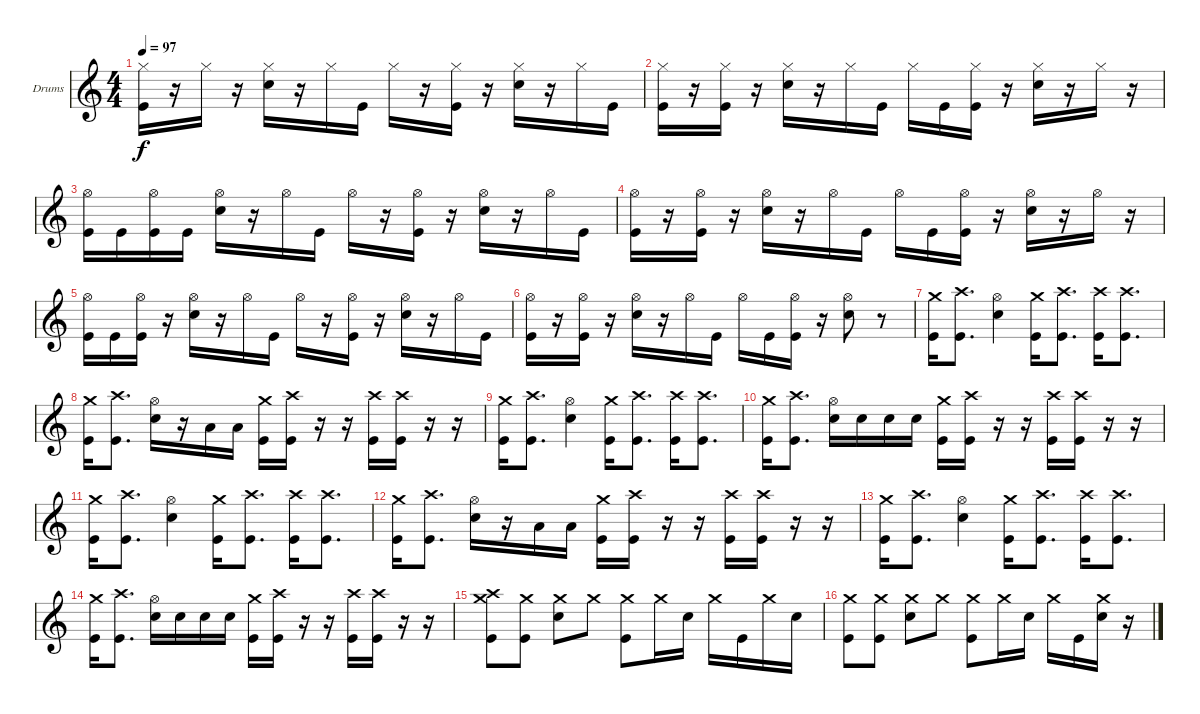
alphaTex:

\defaultSystemsLayout 4
\bracketExtendMode groupsimilarinstruments
\firstSystemTrackNameOrientation horizontal
\otherSystemsTrackNameOrientation horizontal
\track ("David Buckner" "Drums") {instrument percussion}
\staff {score}
\articulation defaults
\ts (4 4)
\tempo 97
\clef g2
\ks c
("Hi-Hat (closed)" "Kick (hit)").16{dy f} r.16 "Hi-Hat (closed)".16 r.16 ("Hi-Hat (closed)" "Snare (hit) 2").16 r.16 "Hi-Hat (closed)".16 "Kick (hit)".16 "Hi-Hat (closed)".16 r.16 ("Hi-Hat (closed)" "Kick (hit)").16 r.16 ("Hi-Hat (closed)" "Snare (hit) 2").16 r.16 "Hi-Hat (closed)".16 "Kick (hit)".16 |
("Hi-Hat (closed)" "Kick (hit)").16 r.16 ("Hi-Hat (closed)" "Kick (hit)").16 r.16 ("Hi-Hat (closed)" "Snare (hit) 2").16 r.16 "Hi-Hat (closed)".16 "Kick (hit)".16 "Hi-Hat (closed)".16 "Kick (hit)".16 ("Hi-Hat (closed)" "Kick (hit)").16 r.16 ("Hi-Hat (closed)" "Snare (hit) 2").16 r.16 "Hi-Hat (closed)".16 r.16 |
("Hi-Hat (open)" "Kick (hit)").16 "Kick (hit)".16 ("Hi-Hat (open)" "Kick (hit)").16 "Kick (hit)".16 ("Hi-Hat (open)" "Snare (hit) 2").16 r.16 "Hi-Hat (open)".16 "Kick (hit)".16 "Hi-Hat (open)".16 r.16 ("Hi-Hat (open)" "Kick (hit)").16 r.16 ("Hi-Hat (open)" "Snare (hit) 2").16 r.16 "Hi-Hat (open)".16 "Kick (hit)".16 |
("Hi-Hat (open)" "Kick (hit)").16 r.16 ("Hi-Hat (open)" "Kick (hit)").16 r.16 ("Hi-Hat (open)" "Snare (hit) 2").16 r.16 "Hi-Hat (open)".16 "Kick (hit)".16 "Hi-Hat (open)".16 "Kick (hit)".16 ("Hi-Hat (open)" "Kick (hit)").16 r.16 ("Hi-Hat (open)" "Snare (hit) 2").16 r.16 "Hi-Hat (open)".16 r.16 |
("Hi-Hat (open)" "Kick (hit)").16 "Kick (hit)".16 ("Hi-Hat (open)" "Kick (hit)").16 r.16 ("Hi-Hat (open)" "Snare (hit) 2").16 r.16 "Hi-Hat (open)".16 "Kick (hit)".16 "Hi-Hat (open)".16 r.16 ("Hi-Hat (open)" "Kick (hit)").16 r.16 ("Hi-Hat (open)" "Snare (hit) 2").16 r.16 "Hi-Hat (open)".16 "Kick (hit)".16 |
("Hi-Hat (open)" "Kick (hit)").16 r.16 ("Hi-Hat (open)" "Kick (hit)").16 r.16 ("Hi-Hat (open)" "Snare (hit) 2").16 r.16 "Hi-Hat (open)".16 "Kick (hit)".16 "Hi-Hat (open)".16 "Kick (hit)".16 ("Hi-Hat (open)" "Kick (hit)").16 r.16 ("Hi-Hat (open)" "Snare (hit) 2").8 r.8 |
("Kick (hit)" "Crash medium (hit)").16 ("Kick (hit)" "Crash high (hit)").8{d} ("Hi-Hat (open)" "Snare (hit) 2").4 ("Kick (hit)" "Crash medium (hit)").16 ("Kick (hit)" "Crash high (hit)").8{d} ("Kick (hit)" "Crash high (hit)").16 ("Kick (hit)" "Crash high (hit)").8{d} |
("Kick (hit)" "Crash medium (hit)").16 ("Kick (hit)" "Crash high (hit)").8{d} ("Snare (hit) 2" "Hi-Hat (open)").16 r.16 "Low Tom (hit)".16 "Low Tom (hit)".16 ("Kick (hit)" "Crash medium (hit)").16 ("Kick (hit)" "Crash high (hit)").16 r.16 r.16 ("Kick (hit)" "Crash high (hit)").16 ("Kick (hit)" "Crash high (hit)").16 r.16 r.16 |
("Kick (hit)" "Crash medium (hit)").16 ("Kick (hit)" "Crash high (hit)").8{d} ("Hi-Hat (open)" "Snare (hit) 2").4 ("Kick (hit)" "Crash medium (hit)").16 ("Kick (hit)" "Crash high (hit)").8{d} ("Kick (hit)" "Crash high (hit)").16 ("Kick (hit)" "Crash high (hit)").8{d} |
("Kick (hit)" "Crash medium (hit)").16 ("Kick (hit)" "Crash high (hit)").8{d} ("Snare (hit) 2" "Hi-Hat (open)").16 "Snare (hit) 2".16 "Snare (hit) 2".16 "Snare (hit) 2".16 ("Kick (hit)" "Crash medium (hit)").16 ("Kick (hit)" "Crash high (hit)").16 r.16 r.16 ("Kick (hit)" "Crash high (hit)").16 ("Kick (hit)" "Crash high (hit)").16 r.16 r.16 |
("Kick (hit)" "Crash medium (hit)").16 ("Kick (hit)" "Crash high (hit)").8{d} ("Hi-Hat (open)" "Snare (hit) 2").4 ("Kick (hit)" "Crash medium (hit)").16 ("Kick (hit)" "Crash high (hit)").8{d} ("Kick (hit)" "Crash high (hit)").16 ("Kick (hit)" "Crash high (hit)").8{d} |
("Kick (hit)" "Crash medium (hit)").16 ("Kick (hit)" "Crash high (hit)").8{d} ("Snare (hit) 2" "Hi-Hat (open)").16 r.16 "Low Tom (hit)".16 "Low Tom (hit)".16 ("Kick (hit)" "Crash medium (hit)").16 ("Kick (hit)" "Crash high (hit)").16 r.16 r.16 ("Kick (hit)" "Crash high (hit)").16 ("Kick (hit)" "Crash high (hit)").16 r.16 r.16 |
("Kick (hit)" "Crash medium (hit)").16 ("Kick (hit)" "Crash high (hit)").8{d} ("Hi-Hat (open)" "Snare (hit) 2").4 ("Kick (hit)" "Crash medium (hit)").16 ("Kick (hit)" "Crash high (hit)").8{d} ("Kick (hit)" "Crash high (hit)").16 ("Kick (hit)" "Crash high (hit)").8{d} |
("Kick (hit)" "Crash medium (hit)").16 ("Kick (hit)" "Crash high (hit)").8{d} ("Snare (hit) 2" "Hi-Hat (open)").16 "Snare (hit) 2".16 "Snare (hit) 2".16 "Snare (hit) 2".16 ("Kick (hit)" "Crash medium (hit)").16 ("Kick (hit)" "Crash high (hit)").16 r.16 r.16 ("Kick (hit)" "Crash high (hit)").16 ("Kick (hit)" "Crash high (hit)").16 r.16 r.16 |
("Kick (hit)" "Crash medium (hit)" "Crash high (hit)").8 ("Kick (hit)" "Crash medium (hit)").8 ("Snare (hit) 2" "Crash medium (hit)").8 "Crash medium (hit)".8 ("Kick (hit)" "Crash medium (hit)").8 "Crash medium (hit)".16 "Snare (hit) 2".16 "Crash medium (hit)".16 "Kick (hit)".16 "Crash medium (hit)".16 "Snare (hit) 2".16 |
("Kick (hit)" "Crash medium (hit)").8 ("Kick (hit)" "Crash medium (hit)").8 ("Snare (hit) 2" "Crash medium (hit)").8 "Crash medium (hit)".8 ("Kick (hit)" "Crash medium (hit)").8 "Crash medium (hit)".16 "Snare (hit) 2".16 "Crash medium (hit)".16 "Kick (hit)".16 ("Crash medium (hit)" "Snare (hit) 2").16 r.16
